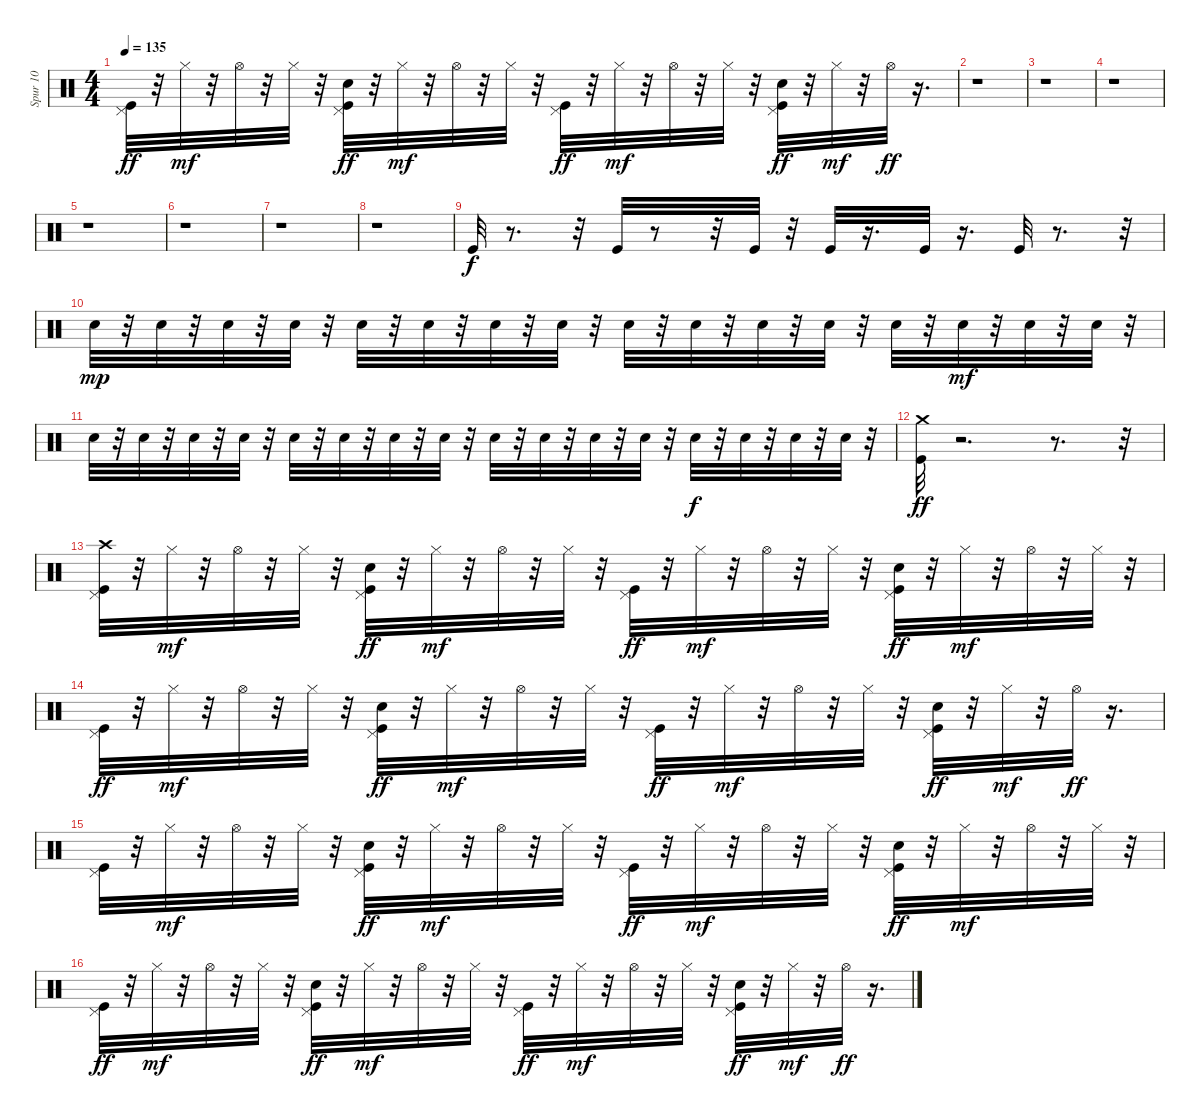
\track ("Spur 10" "Spur 10") {instrument percussion}
\staff {score}
\articulation defaults
\ts (4 4)
\tempo 135
\clef neutral
\ks c
("Kick (hit)" "Pedal Hi-Hat (hit)").32{dy ff} r.32 "Hi-Hat (closed)".32{dy mf} r.32 "Hi-Hat (open)".32 r.32 "Hi-Hat (closed)".32 r.32 ("Kick (hit)" "Hand Clap (hit)" "Pedal Hi-Hat (hit)").32{dy ff} r.32 "Hi-Hat (closed)".32{dy mf} r.32 "Hi-Hat (open)".32 r.32 "Hi-Hat (closed)".32 r.32 ("Kick (hit)" "Pedal Hi-Hat (hit)").32{dy ff} r.32 "Hi-Hat (closed)".32{dy mf} r.32 "Hi-Hat (open)".32 r.32 "Hi-Hat (closed)".32 r.32 ("Kick (hit)" "Hand Clap (hit)" "Pedal Hi-Hat (hit)").32{dy ff} r.32 "Hi-Hat (closed)".32{dy mf} r.32 "Hi-Hat (open)".32{dy ff} r.16{d} |
r.1 |
r.1 |
r.1 |
r.1 |
r.1 |
r.1 |
r.1 |
"Kick (hit)".32{dy f} r.8{d} r.32 "Kick (hit)".32 r.8 r.32 "Kick (hit)".32 r.32 "Kick (hit)".32 r.16{d} "Kick (hit)".32 r.16{d} "Kick (hit)".32 r.8{d} r.32 |
"Snare (hit) 2".32{dy mp} r.32 "Snare (hit) 2".32 r.32 "Snare (hit) 2".32 r.32 "Snare (hit) 2".32 r.32 "Snare (hit) 2".32 r.32 "Snare (hit) 2".32 r.32 "Snare (hit) 2".32 r.32 "Snare (hit) 2".32 r.32 "Snare (hit) 2".32 r.32 "Snare (hit) 2".32 r.32 "Snare (hit) 2".32 r.32 "Snare (hit) 2".32 r.32 "Snare (hit) 2".32 r.32 "Snare (hit) 2".32{dy mf} r.32 "Snare (hit) 2".32 r.32 "Snare (hit) 2".32 r.32 |
"Snare (hit) 2".32 r.32 "Snare (hit) 2".32 r.32 "Snare (hit) 2".32 r.32 "Snare (hit) 2".32 r.32 "Snare (hit) 2".32 r.32 "Snare (hit) 2".32 r.32 "Snare (hit) 2".32 r.32 "Snare (hit) 2".32 r.32 "Snare (hit) 2".32 r.32 "Snare (hit) 2".32 r.32 "Snare (hit) 2".32 r.32 "Snare (hit) 2".32 r.32 "Snare (hit) 2".32{dy f} r.32 "Snare (hit) 2".32 r.32 "Snare (hit) 2".32 r.32 "Snare (hit) 2".32 r.32 |
("Kick (hit)" "Crash medium (hit)").32{dy ff} r.2{d} r.8{d} r.32 |
("Crash high (hit)" "Kick (hit)" "Pedal Hi-Hat (hit)").32 r.32 "Hi-Hat (closed)".32{dy mf} r.32 "Hi-Hat (open)".32 r.32 "Hi-Hat (closed)".32 r.32 ("Kick (hit)" "Hand Clap (hit)" "Pedal Hi-Hat (hit)").32{dy ff} r.32 "Hi-Hat (closed)".32{dy mf} r.32 "Hi-Hat (open)".32 r.32 "Hi-Hat (closed)".32 r.32 ("Kick (hit)" "Pedal Hi-Hat (hit)").32{dy ff} r.32 "Hi-Hat (closed)".32{dy mf} r.32 "Hi-Hat (open)".32 r.32 "Hi-Hat (closed)".32 r.32 ("Kick (hit)" "Hand Clap (hit)" "Pedal Hi-Hat (hit)").32{dy ff} r.32 "Hi-Hat (closed)".32{dy mf} r.32 "Hi-Hat (open)".32 r.32 "Hi-Hat (closed)".32 r.32 |
("Kick (hit)" "Pedal Hi-Hat (hit)").32{dy ff} r.32 "Hi-Hat (closed)".32{dy mf} r.32 "Hi-Hat (open)".32 r.32 "Hi-Hat (closed)".32 r.32 ("Kick (hit)" "Hand Clap (hit)" "Pedal Hi-Hat (hit)").32{dy ff} r.32 "Hi-Hat (closed)".32{dy mf} r.32 "Hi-Hat (open)".32 r.32 "Hi-Hat (closed)".32 r.32 ("Kick (hit)" "Pedal Hi-Hat (hit)").32{dy ff} r.32 "Hi-Hat (closed)".32{dy mf} r.32 "Hi-Hat (open)".32 r.32 "Hi-Hat (closed)".32 r.32 ("Kick (hit)" "Hand Clap (hit)" "Pedal Hi-Hat (hit)").32{dy ff} r.32 "Hi-Hat (closed)".32{dy mf} r.32 "Hi-Hat (open)".32{dy ff} r.16{d} |
("Kick (hit)" "Pedal Hi-Hat (hit)").32 r.32 "Hi-Hat (closed)".32{dy mf} r.32 "Hi-Hat (open)".32 r.32 "Hi-Hat (closed)".32 r.32 ("Kick (hit)" "Hand Clap (hit)" "Pedal Hi-Hat (hit)").32{dy ff} r.32 "Hi-Hat (closed)".32{dy mf} r.32 "Hi-Hat (open)".32 r.32 "Hi-Hat (closed)".32 r.32 ("Kick (hit)" "Pedal Hi-Hat (hit)").32{dy ff} r.32 "Hi-Hat (closed)".32{dy mf} r.32 "Hi-Hat (open)".32 r.32 "Hi-Hat (closed)".32 r.32 ("Kick (hit)" "Hand Clap (hit)" "Pedal Hi-Hat (hit)").32{dy ff} r.32 "Hi-Hat (closed)".32{dy mf} r.32 "Hi-Hat (open)".32 r.32 "Hi-Hat (closed)".32 r.32 |
("Kick (hit)" "Pedal Hi-Hat (hit)").32{dy ff} r.32 "Hi-Hat (closed)".32{dy mf} r.32 "Hi-Hat (open)".32 r.32 "Hi-Hat (closed)".32 r.32 ("Kick (hit)" "Hand Clap (hit)" "Pedal Hi-Hat (hit)").32{dy ff} r.32 "Hi-Hat (closed)".32{dy mf} r.32 "Hi-Hat (open)".32 r.32 "Hi-Hat (closed)".32 r.32 ("Kick (hit)" "Pedal Hi-Hat (hit)").32{dy ff} r.32 "Hi-Hat (closed)".32{dy mf} r.32 "Hi-Hat (open)".32 r.32 "Hi-Hat (closed)".32 r.32 ("Kick (hit)" "Hand Clap (hit)" "Pedal Hi-Hat (hit)").32{dy ff} r.32 "Hi-Hat (closed)".32{dy mf} r.32 "Hi-Hat (open)".32{dy ff} r.16{d}
